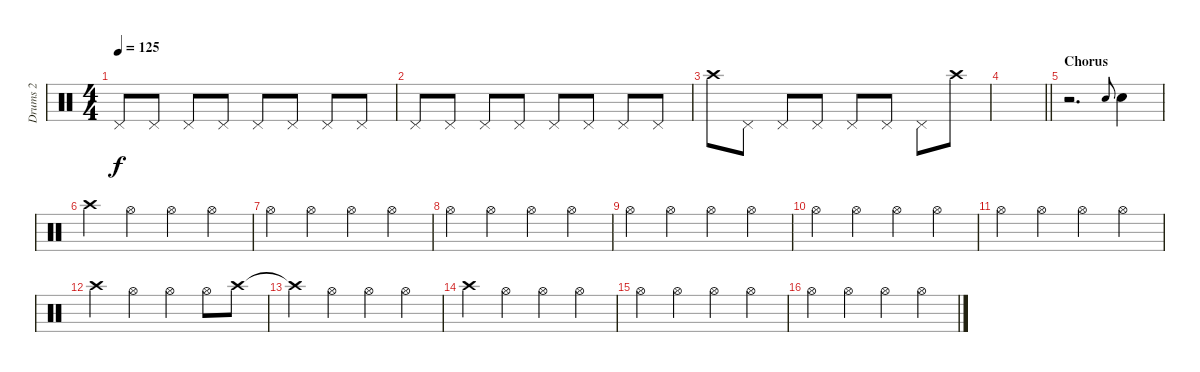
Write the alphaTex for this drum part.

\track ("Drums 2" "Drums 2") {instrument percussion}
\staff {score}
\articulation defaults
\ts (4 4)
\tempo 125
\clef neutral
\ks c "Pedal Hi-Hat (hit)".8{dy f} "Pedal Hi-Hat (hit)".8 "Pedal Hi-Hat (hit)".8 "Pedal Hi-Hat (hit)".8 "Pedal Hi-Hat (hit)".8 "Pedal Hi-Hat (hit)".8 "Pedal Hi-Hat (hit)".8 "Pedal Hi-Hat (hit)".8
|
"Pedal Hi-Hat (hit)".8 "Pedal Hi-Hat (hit)".8 "Pedal Hi-Hat (hit)".8 "Pedal Hi-Hat (hit)".8 "Pedal Hi-Hat (hit)".8 "Pedal Hi-Hat (hit)".8 "Pedal Hi-Hat (hit)".8 "Pedal Hi-Hat (hit)".8 |
"Crash high (hit)".8 "Pedal Hi-Hat (hit)".8 "Pedal Hi-Hat (hit)".8 "Pedal Hi-Hat (hit)".8 "Pedal Hi-Hat (hit)".8 "Pedal Hi-Hat (hit)".8 "Pedal Hi-Hat (hit)".8 "Crash high (hit)".8 |
\barLineRight lightlight
|
\section ("" "Chorus")
r.2{d} "Snare (hit) 2".8{gr onbeat} "Snare (hit) 2".4 |
"Crash high (hit)".4 "Hi-Hat (open)".4 "Hi-Hat (open)".4 "Hi-Hat (open)".4 |
"Hi-Hat (open)".4 "Hi-Hat (open)".4 "Hi-Hat (open)".4 "Hi-Hat (open)".4 |
"Hi-Hat (open)".4 "Hi-Hat (open)".4 "Hi-Hat (open)".4 "Hi-Hat (open)".4 |
"Hi-Hat (open)".4 "Hi-Hat (open)".4 "Hi-Hat (open)".4 "Hi-Hat (open)".4 |
"Hi-Hat (open)".4 "Hi-Hat (open)".4 "Hi-Hat (open)".4 "Hi-Hat (open)".4 |
"Hi-Hat (open)".4 "Hi-Hat (open)".4 "Hi-Hat (open)".4 "Hi-Hat (open)".4 |
"Crash high (hit)".4 "Hi-Hat (open)".4 "Hi-Hat (open)".4 "Hi-Hat (open)".8 "Crash high (hit)".8 |
"Crash high (hit)"{t}.4 "Hi-Hat (open)".4 "Hi-Hat (open)".4 "Hi-Hat (open)".4 |
"Crash high (hit)".4 "Hi-Hat (open)".4 "Hi-Hat (open)".4 "Hi-Hat (open)".4 |
"Hi-Hat (open)".4 "Hi-Hat (open)".4 "Hi-Hat (open)".4 "Hi-Hat (open)".4 |
"Hi-Hat (open)".4 "Hi-Hat (open)".4 "Hi-Hat (open)".4 "Hi-Hat (open)".4
